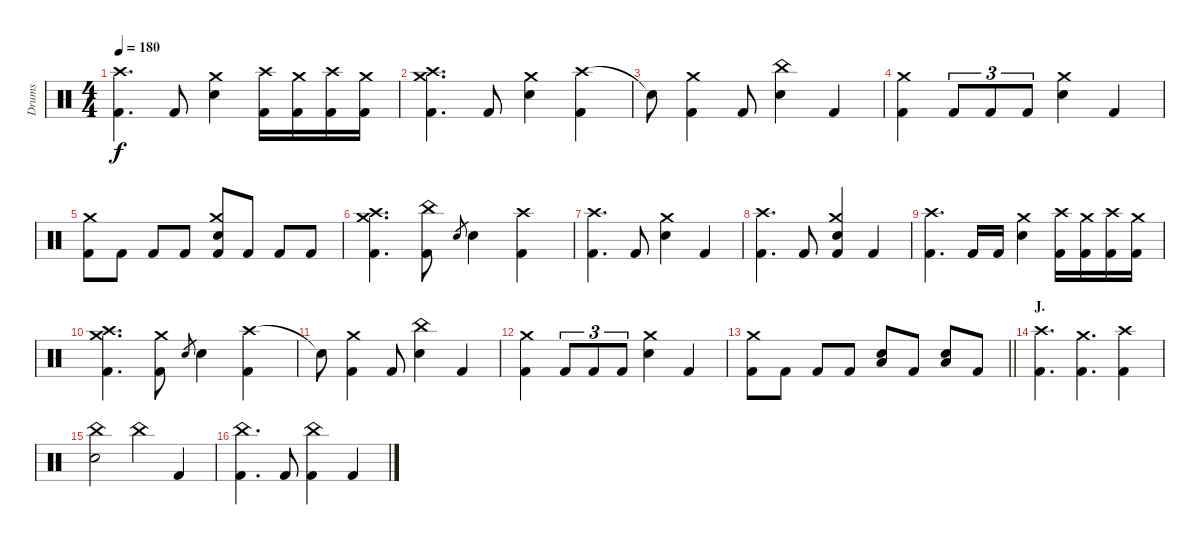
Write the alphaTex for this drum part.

\track ("Drums" "Drums") {instrument percussion}
\staff {score}
\articulation defaults
\ts (4 4)
\tempo 180
\clef neutral
\ks c
("Crash high (hit)" "Kick (hit) 2").4{d dy f} "Kick (hit) 2".8 ("Crash medium (hit)" "Electric Snare (hit)").4 ("Crash high (hit)" "Kick (hit) 2").16 ("Crash medium (hit)" "Kick (hit) 2").16 ("Crash high (hit)" "Kick (hit) 2").16 ("Crash medium (hit)" "Kick (hit) 2").16 |
("Crash medium (hit)" "Crash high (hit)" "Kick (hit) 2").4{d} "Kick (hit) 2".8 ("Crash medium (hit)" "Electric Snare (hit)").4 ("Crash high (hit)" "Kick (hit) 2").4 |
"Snare (hit)"{t}.8 ("Crash medium (hit)" "Kick (hit) 2").4 "Kick (hit) 2".8 ("China (hit)" "Electric Snare (hit)").4 "Kick (hit) 2".4 |
("Crash medium (hit)" "Kick (hit) 2").4 "Kick (hit) 2".8{tu (3 2)} "Kick (hit) 2".8{tu (3 2)} "Kick (hit) 2".8{tu (3 2)} ("Crash medium (hit)" "Electric Snare (hit)").4 "Kick (hit) 2".4 |
("Crash medium (hit)" "Kick (hit) 2").8 "Kick (hit) 2".8 "Kick (hit) 2".8 "Kick (hit) 2".8 ("Crash medium (hit)" "Electric Snare (hit)" "Kick (hit) 2").8 "Kick (hit) 2".8 "Kick (hit) 2".8 "Kick (hit) 2".8 |
("Crash medium (hit)" "Crash high (hit)" "Kick (hit) 2").4{d} ("China (hit)" "Kick (hit) 2").8 "Electric Snare (hit)".8{gr} "Electric Snare (hit)".4 ("Crash high (hit)" "Kick (hit) 2").4 |
("Crash high (hit)" "Kick (hit) 2").4{d} "Kick (hit) 2".8 ("Crash medium (hit)" "Electric Snare (hit)").4 "Kick (hit) 2".4 |
("Crash high (hit)" "Kick (hit) 2").4{d} "Kick (hit) 2".8 ("Crash medium (hit)" "Electric Snare (hit)" "Kick (hit) 2").4 "Kick (hit) 2".4 |
("Crash high (hit)" "Kick (hit) 2").4{d} "Kick (hit) 2".16 "Kick (hit) 2".16 ("Crash medium (hit)" "Electric Snare (hit)").4 ("Crash high (hit)" "Kick (hit) 2").16 ("Crash medium (hit)" "Kick (hit) 2").16 ("Crash high (hit)" "Kick (hit) 2").16 ("Crash medium (hit)" "Kick (hit) 2").16 |
("Crash medium (hit)" "Crash high (hit)" "Kick (hit) 2").4{d} ("Crash medium (hit)" "Kick (hit) 2").8 "Electric Snare (hit)".8{gr} "Electric Snare (hit)".4 ("Crash high (hit)" "Kick (hit) 2").4 |
"Snare (hit)"{t}.8 ("Crash medium (hit)" "Kick (hit) 2").4 "Kick (hit) 2".8 ("China (hit)" "Electric Snare (hit)").4 "Kick (hit) 2".4 |
("Crash medium (hit)" "Kick (hit) 2").4 "Kick (hit) 2".8{tu (3 2)} "Kick (hit) 2".8{tu (3 2)} "Kick (hit) 2".8{tu (3 2)} ("Crash medium (hit)" "Electric Snare (hit)").4 "Kick (hit) 2".4 |
\barLineRight lightlight
("Crash medium (hit)" "Kick (hit) 2").8 "Kick (hit) 2".8 "Kick (hit) 2".8 "Kick (hit) 2".8 ("Low Tom (hit)" "Electric Snare (hit)").8{bu 120} "Kick (hit) 2".8 ("Low Tom (hit)" "Electric Snare (hit)").8{bu 120} "Kick (hit) 2".8 |
\section ("" "J.")
("Crash high (hit)" "Kick (hit) 2").4{d} ("Crash medium (hit)" "Kick (hit) 2").4{d} ("Crash high (hit)" "Kick (hit) 2").4 |
("China (hit)" "Electric Snare (hit)").2 "China (hit)".4 "Kick (hit) 2".4 |
("China (hit)" "Kick (hit) 2").4{d} "Kick (hit) 2".8 ("China (hit)" "Kick (hit) 2").4 "Kick (hit) 2".4
